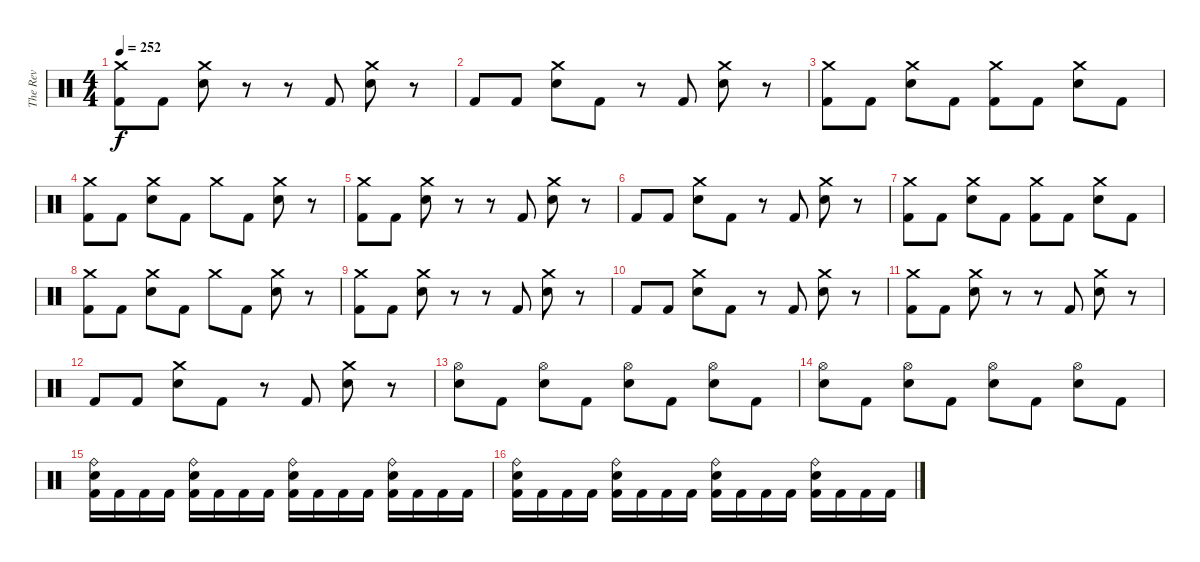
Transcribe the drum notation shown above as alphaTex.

\track ("The Rev" "The Rev") {instrument percussion}
\staff {score}
\articulation defaults
\ts (4 4)
\tempo 252
\clef neutral
\ks c
("Crash medium (hit)" "Kick (hit) 2").8{dy f} "Kick (hit) 2".8 ("Crash medium (hit)" "Electric Snare (hit)").8 r.8 r.8 "Kick (hit) 2".8 ("Crash medium (hit)" "Electric Snare (hit)").8 r.8 |
"Kick (hit) 2".8 "Kick (hit) 2".8 ("Crash medium (hit)" "Electric Snare (hit)").8 "Kick (hit) 2".8 r.8 "Kick (hit) 2".8 ("Crash medium (hit)" "Electric Snare (hit)").8 r.8 |
("Crash medium (hit)" "Kick (hit) 2").8 "Kick (hit) 2".8 ("Crash medium (hit)" "Electric Snare (hit)").8 "Kick (hit) 2".8 ("Crash medium (hit)" "Kick (hit) 2").8 "Kick (hit) 2".8 ("Crash medium (hit)" "Electric Snare (hit)").8 "Kick (hit) 2".8 |
("Crash medium (hit)" "Kick (hit) 2").8 "Kick (hit) 2".8 ("Crash medium (hit)" "Electric Snare (hit)").8 "Kick (hit) 2".8 "Crash medium (hit)".8 "Kick (hit) 2".8 ("Crash medium (hit)" "Electric Snare (hit)").8 r.8 |
("Crash medium (hit)" "Kick (hit) 2").8 "Kick (hit) 2".8 ("Crash medium (hit)" "Electric Snare (hit)").8 r.8 r.8 "Kick (hit) 2".8 ("Crash medium (hit)" "Electric Snare (hit)").8 r.8 |
"Kick (hit) 2".8 "Kick (hit) 2".8 ("Crash medium (hit)" "Electric Snare (hit)").8 "Kick (hit) 2".8 r.8 "Kick (hit) 2".8 ("Crash medium (hit)" "Electric Snare (hit)").8 r.8 |
("Crash medium (hit)" "Kick (hit) 2").8 "Kick (hit) 2".8 ("Crash medium (hit)" "Electric Snare (hit)").8 "Kick (hit) 2".8 ("Crash medium (hit)" "Kick (hit) 2").8 "Kick (hit) 2".8 ("Crash medium (hit)" "Electric Snare (hit)").8 "Kick (hit) 2".8 |
("Crash medium (hit)" "Kick (hit) 2").8 "Kick (hit) 2".8 ("Crash medium (hit)" "Electric Snare (hit)").8 "Kick (hit) 2".8 "Crash medium (hit)".8 "Kick (hit) 2".8 ("Crash medium (hit)" "Electric Snare (hit)").8 r.8 |
("Crash medium (hit)" "Kick (hit) 2").8 "Kick (hit) 2".8 ("Crash medium (hit)" "Electric Snare (hit)").8 r.8 r.8 "Kick (hit) 2".8 ("Crash medium (hit)" "Electric Snare (hit)").8 r.8 |
"Kick (hit) 2".8 "Kick (hit) 2".8 ("Crash medium (hit)" "Electric Snare (hit)").8 "Kick (hit) 2".8 r.8 "Kick (hit) 2".8 ("Crash medium (hit)" "Electric Snare (hit)").8 r.8 |
("Crash medium (hit)" "Kick (hit) 2").8 "Kick (hit) 2".8 ("Crash medium (hit)" "Electric Snare (hit)").8 r.8 r.8 "Kick (hit) 2".8 ("Crash medium (hit)" "Electric Snare (hit)").8 r.8 |
"Kick (hit) 2".8 "Kick (hit) 2".8 ("Crash medium (hit)" "Electric Snare (hit)").8 "Kick (hit) 2".8 r.8 "Kick (hit) 2".8 ("Crash medium (hit)" "Electric Snare (hit)").8 r.8 |
("Hi-Hat (open)" "Electric Snare (hit)").8 "Kick (hit) 2".8 ("Hi-Hat (open)" "Electric Snare (hit)").8 "Kick (hit) 2".8 ("Hi-Hat (open)" "Electric Snare (hit)").8 "Kick (hit) 2".8 ("Hi-Hat (open)" "Electric Snare (hit)").8 "Kick (hit) 2".8 |
("Hi-Hat (open)" "Electric Snare (hit)").8 "Kick (hit) 2".8 ("Hi-Hat (open)" "Electric Snare (hit)").8 "Kick (hit) 2".8 ("Hi-Hat (open)" "Electric Snare (hit)").8 "Kick (hit) 2".8 ("Hi-Hat (open)" "Electric Snare (hit)").8 "Kick (hit) 2".8 |
("Ride (bell)" "Electric Snare (hit)" "Kick (hit) 2").16 "Kick (hit) 2".16 "Kick (hit) 2".16 "Kick (hit) 2".16 ("Ride (bell)" "Electric Snare (hit)" "Kick (hit) 2").16 "Kick (hit) 2".16 "Kick (hit) 2".16 "Kick (hit) 2".16 ("Ride (bell)" "Electric Snare (hit)" "Kick (hit) 2").16 "Kick (hit) 2".16 "Kick (hit) 2".16 "Kick (hit) 2".16 ("Ride (bell)" "Electric Snare (hit)" "Kick (hit) 2").16 "Kick (hit) 2".16 "Kick (hit) 2".16 "Kick (hit) 2".16 |
("Ride (bell)" "Electric Snare (hit)" "Kick (hit) 2").16 "Kick (hit) 2".16 "Kick (hit) 2".16 "Kick (hit) 2".16 ("Ride (bell)" "Electric Snare (hit)" "Kick (hit) 2").16 "Kick (hit) 2".16 "Kick (hit) 2".16 "Kick (hit) 2".16 ("Ride (bell)" "Electric Snare (hit)" "Kick (hit) 2").16 "Kick (hit) 2".16 "Kick (hit) 2".16 "Kick (hit) 2".16 ("Ride (bell)" "Electric Snare (hit)" "Kick (hit) 2").16 "Kick (hit) 2".16 "Kick (hit) 2".16 "Kick (hit) 2".16
